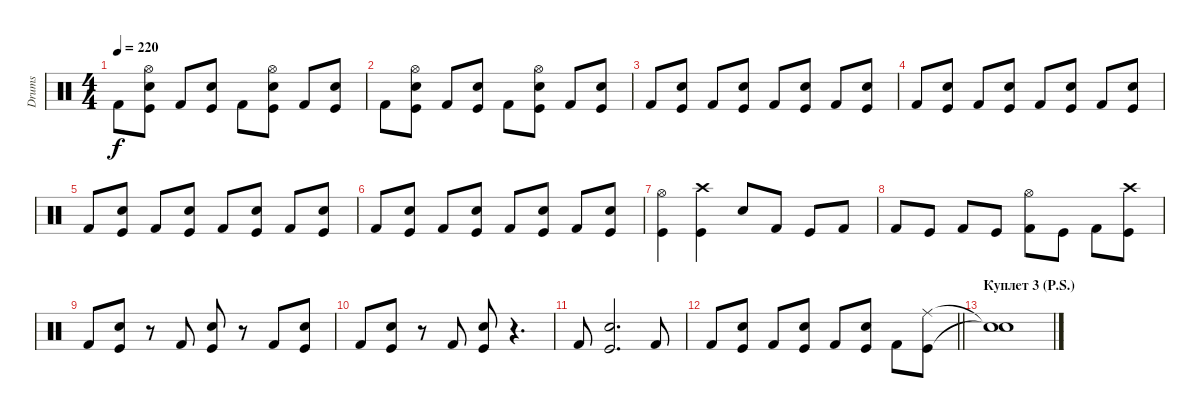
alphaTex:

\track ("Drums" "Drums") {instrument percussion}
\staff {score}
\articulation defaults
\ts (4 4)
\tempo 220
\clef neutral
\ks c "Kick (hit) 2".8{dy f}
("Hi-Hat (open)" "Electric Snare (hit)" "Kick (hit)").8 "Kick (hit) 2".8 ("Electric Snare (hit)" "Kick (hit)").8 "Kick (hit) 2".8 ("Hi-Hat (open)" "Electric Snare (hit)" "Kick (hit)").8 "Kick (hit) 2".8 ("Electric Snare (hit)" "Kick (hit)").8 |
"Kick (hit) 2".8 ("Hi-Hat (open)" "Electric Snare (hit)" "Kick (hit)").8 "Kick (hit) 2".8 ("Electric Snare (hit)" "Kick (hit)").8 "Kick (hit) 2".8 ("Hi-Hat (open)" "Electric Snare (hit)" "Kick (hit)").8 "Kick (hit) 2".8 ("Electric Snare (hit)" "Kick (hit)").8 |
"Kick (hit) 2".8 ("Electric Snare (hit)" "Kick (hit)").8 "Kick (hit) 2".8 ("Electric Snare (hit)" "Kick (hit)").8 "Kick (hit) 2".8 ("Electric Snare (hit)" "Kick (hit)").8 "Kick (hit) 2".8 ("Electric Snare (hit)" "Kick (hit)").8 |
"Kick (hit) 2".8 ("Electric Snare (hit)" "Kick (hit)").8 "Kick (hit) 2".8 ("Electric Snare (hit)" "Kick (hit)").8 "Kick (hit) 2".8 ("Electric Snare (hit)" "Kick (hit)").8 "Kick (hit) 2".8 ("Electric Snare (hit)" "Kick (hit)").8 |
"Kick (hit) 2".8 ("Electric Snare (hit)" "Kick (hit)").8 "Kick (hit) 2".8 ("Electric Snare (hit)" "Kick (hit)").8 "Kick (hit) 2".8 ("Electric Snare (hit)" "Kick (hit)").8 "Kick (hit) 2".8 ("Electric Snare (hit)" "Kick (hit)").8 |
"Kick (hit) 2".8 ("Electric Snare (hit)" "Kick (hit)").8 "Kick (hit) 2".8 ("Electric Snare (hit)" "Kick (hit)").8 "Kick (hit) 2".8 ("Electric Snare (hit)" "Kick (hit)").8 "Kick (hit) 2".8 ("Electric Snare (hit)" "Kick (hit)").8 |
("Hi-Hat (open)" "Kick (hit)").4 ("Crash high (hit)" "Kick (hit)").4 "Electric Snare (hit)".8 "Kick (hit) 2".8 "Kick (hit)".8 "Kick (hit) 2".8 |
"Kick (hit) 2".8 "Kick (hit)".8 "Kick (hit) 2".8 "Kick (hit)".8 ("Hi-Hat (open)" "Kick (hit) 2").8 "Kick (hit)".8 "Kick (hit) 2".8 ("Crash high (hit)" "Kick (hit)").8 |
"Kick (hit) 2".8 ("Electric Snare (hit)" "Kick (hit)").8 r.8 "Kick (hit) 2".8 ("Electric Snare (hit)" "Kick (hit)").8 r.8 "Kick (hit) 2".8 ("Electric Snare (hit)" "Kick (hit)").8 |
"Kick (hit) 2".8 ("Electric Snare (hit)" "Kick (hit)").8 r.8 "Kick (hit) 2".8 ("Electric Snare (hit)" "Kick (hit)").8 r.4{d} |
"Kick (hit) 2".8 ("Electric Snare (hit)" "Kick (hit)").2{d} "Kick (hit) 2".8 |
\barLineRight lightlight "Kick (hit) 2".8
("Electric Snare (hit)" "Kick (hit)").8 "Kick (hit) 2".8 ("Electric Snare (hit)" "Kick (hit)").8 "Kick (hit) 2".8 ("Electric Snare (hit)" "Kick (hit)").8 "Kick (hit) 2".8 ("Ride (middle)" "Kick (hit)").8 |
\section ("" "Куплет 3 (P.S.)")
("Snare (hit)"{t} "Snare (hit)"{t}).1
